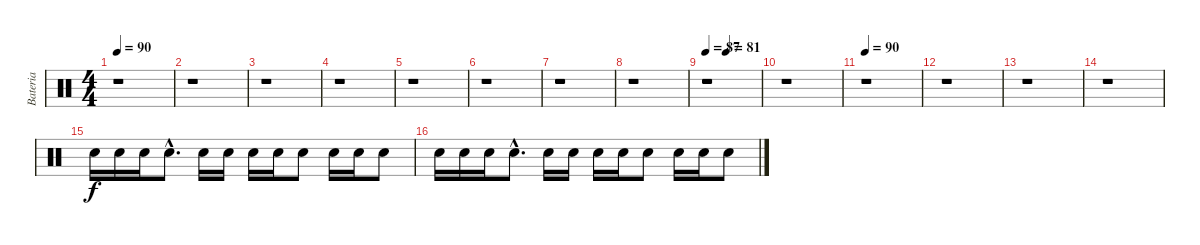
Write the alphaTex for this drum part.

\track ("Bateria" "Bateria") {instrument percussion}
\staff {score}
\articulation defaults
\ts (4 4)
\tempo 90
\clef neutral
\ks c
r.1{dy f} |
r.1 |
r.1 |
r.1 |
r.1 |
r.1 |
r.1 |
r.1 |
\tempo 87
\tempo (81 0.375)
r.1 |
r.1 |
\tempo 90
r.1 |
r.1 |
r.1 |
r.1 |
"Electric Snare (hit)".16 "Electric Snare (hit)".16 "Electric Snare (hit)".16 "Electric Snare (hit)"{hac}.8{d} "Electric Snare (hit)".16 "Electric Snare (hit)".16 "Electric Snare (hit)".16 "Electric Snare (hit)".16 "Electric Snare (hit)".8 "Electric Snare (hit)".16 "Electric Snare (hit)".16 "Electric Snare (hit)".8 |
"Electric Snare (hit)".16 "Electric Snare (hit)".16 "Electric Snare (hit)".16 "Electric Snare (hit)"{hac}.8{d} "Electric Snare (hit)".16 "Electric Snare (hit)".16 "Electric Snare (hit)".16 "Electric Snare (hit)".16 "Electric Snare (hit)".8 "Electric Snare (hit)".16 "Electric Snare (hit)".16 "Electric Snare (hit)".8
